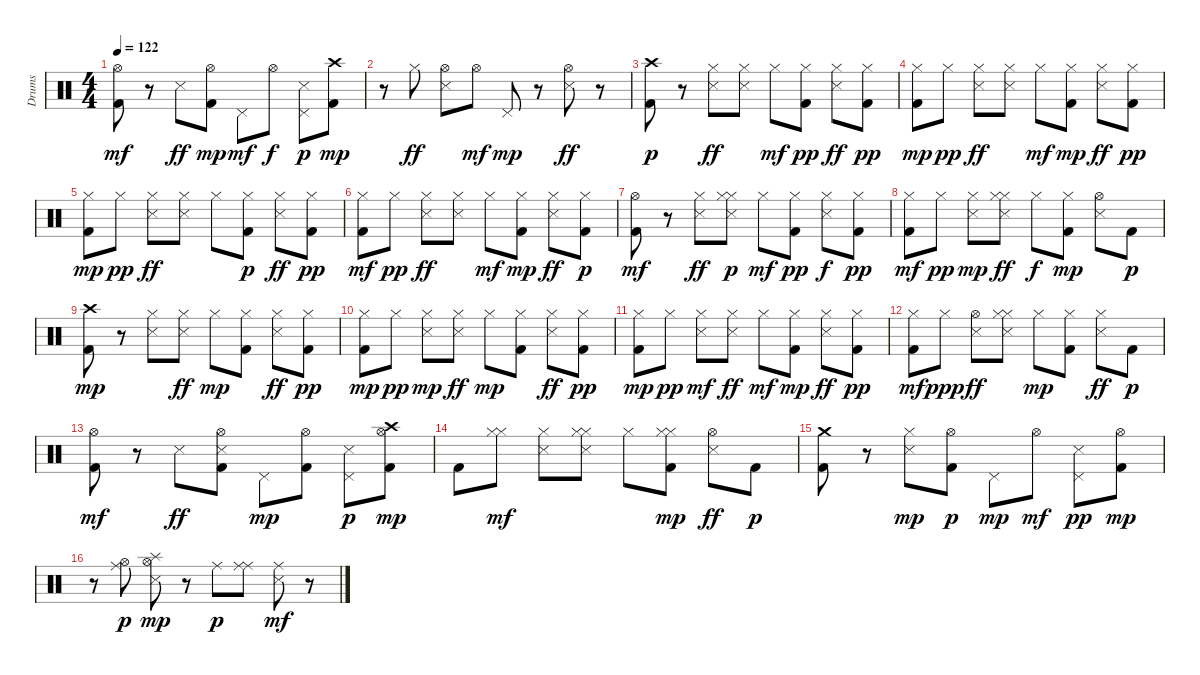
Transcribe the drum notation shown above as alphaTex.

\track ("Drums    " "Drums    ") {instrument percussion}
\staff {score}
\articulation defaults
\ts (4 4)
\tempo 122
\clef neutral
\ks c
("Hi-Hat (open)" "Kick (hit) 2").8{dy mf} r.8 "Snare (side stick) 3".8{dy ff} ("Kick (hit) 2" "Hi-Hat (open)").8{dy mp} "Pedal Hi-Hat (hit)".8{dy mf} "Hi-Hat (open)".8{dy f} ("Snare (side stick) 3" "Pedal Hi-Hat (hit)").8{dy p} ("Crash high (hit)" "Kick (hit) 2").8{dy mp} |
r.8 "Hi-Hat (closed)".8{dy ff} ("Snare (side stick) 3" "Hi-Hat (open)").8 "Hi-Hat (open)".8{dy mf} "Pedal Hi-Hat (hit)".8{dy mp} r.8 ("Hi-Hat (open)" "Snare (side stick) 3").8{dy ff} r.8 |
("Kick (hit) 2" "Crash high (hit)").8{dy p} r.8 ("Hi-Hat (closed)" "Snare (side stick) 3").8{dy ff} ("Hi-Hat (closed)" "Snare (side stick) 3").8 "Hi-Hat (closed)".8{dy mf} ("Kick (hit) 2" "Hi-Hat (closed)").8{dy pp} ("Hi-Hat (closed)" "Snare (side stick) 3").8{dy ff} ("Hi-Hat (closed)" "Kick (hit) 2").8{dy pp} |
("Hi-Hat (closed)" "Kick (hit) 2").8{dy mp} "Hi-Hat (closed)".8{dy pp} ("Snare (side stick) 3" "Hi-Hat (closed)").8{dy ff} ("Hi-Hat (closed)" "Snare (side stick) 3").8 "Hi-Hat (closed)".8{dy mf} ("Hi-Hat (closed)" "Kick (hit) 2").8{dy mp} ("Hi-Hat (closed)" "Snare (side stick) 3").8{dy ff} ("Hi-Hat (closed)" "Kick (hit) 2").8{dy pp} |
("Hi-Hat (closed)" "Kick (hit) 2").8{dy mp} "Hi-Hat (closed)".8{dy pp} ("Snare (side stick) 3" "Hi-Hat (closed)").8{dy ff} ("Hi-Hat (closed)" "Snare (side stick) 3").8 "Hi-Hat (closed)".8 ("Kick (hit) 2" "Hi-Hat (closed)").8{dy p} ("Snare (side stick) 3" "Hi-Hat (closed)").8{dy ff} ("Hi-Hat (closed)" "Kick (hit) 2").8{dy pp} |
("Kick (hit) 2" "Hi-Hat (closed)").8{dy mf} "Hi-Hat (closed)".8{dy pp} ("Hi-Hat (closed)" "Snare (side stick) 3").8{dy ff} ("Hi-Hat (closed)" "Snare (side stick) 3").8 "Hi-Hat (closed)".8{dy mf} ("Hi-Hat (closed)" "Kick (hit) 2").8{dy mp} ("Snare (side stick) 3" "Hi-Hat (closed)").8{dy ff} ("Hi-Hat (closed)" "Kick (hit) 2").8{dy p} |
("Kick (hit) 2" "Hi-Hat (open)").8{dy mf} r.8 ("Snare (side stick) 3" "Hi-Hat (closed)").8{dy ff} ("Hi-Hat (closed)" "Snare (side stick) 3" "Hi-Hat (closed)").8{dy p} "Hi-Hat (closed)".8{dy mf} ("Kick (hit) 2" "Hi-Hat (closed)").8{dy pp} ("Snare (side stick) 3" "Hi-Hat (closed)").8{dy f} ("Kick (hit) 2" "Hi-Hat (closed)").8{dy pp} |
("Kick (hit) 2" "Hi-Hat (closed)").8{dy mf} "Hi-Hat (closed)".8{dy pp} ("Snare (side stick) 3" "Hi-Hat (closed)").8{dy mp} ("Hi-Hat (closed)" "Hi-Hat (closed)" "Snare (side stick) 3").8{dy ff} "Hi-Hat (closed)".8{dy f} ("Kick (hit) 2" "Hi-Hat (closed)").8{dy mp} ("Snare (side stick) 3" "Hi-Hat (open)").8 "Kick (hit) 2".8{dy p} |
("Kick (hit) 2" "Crash high (hit)").8{dy mp} r.8 ("Snare (side stick) 3" "Hi-Hat (closed)").8 ("Hi-Hat (closed)" "Snare (side stick) 3").8{dy ff} "Hi-Hat (closed)".8{dy mp} ("Hi-Hat (closed)" "Kick (hit) 2").8 ("Hi-Hat (closed)" "Snare (side stick) 3").8{dy ff} ("Hi-Hat (closed)" "Kick (hit) 2").8{dy pp} |
("Kick (hit) 2" "Hi-Hat (closed)").8{dy mp} "Hi-Hat (closed)".8{dy pp} ("Snare (side stick) 3" "Hi-Hat (closed)").8{dy mp} ("Hi-Hat (closed)" "Snare (side stick) 3").8{dy ff} "Hi-Hat (closed)".8{dy mp} ("Hi-Hat (closed)" "Kick (hit) 2").8 ("Hi-Hat (closed)" "Snare (side stick) 3").8{dy ff} ("Hi-Hat (closed)" "Kick (hit) 2").8{dy pp} |
("Hi-Hat (closed)" "Kick (hit) 2").8{dy mp} "Hi-Hat (closed)".8{dy pp} ("Hi-Hat (closed)" "Snare (side stick) 3").8{dy mf} ("Hi-Hat (closed)" "Snare (side stick) 3").8{dy ff} "Hi-Hat (closed)".8{dy mf} ("Hi-Hat (closed)" "Kick (hit) 2").8{dy mp} ("Hi-Hat (closed)" "Snare (side stick) 3").8{dy ff} ("Kick (hit) 2" "Hi-Hat (closed)").8{dy pp} |
("Hi-Hat (closed)" "Kick (hit) 2").8{dy mf} "Hi-Hat (closed)".8{dy ppp} ("Snare (side stick) 3" "Hi-Hat (open)").8{dy ff} ("Hi-Hat (closed)" "Snare (side stick) 3" "Hi-Hat (closed)").8 "Hi-Hat (closed)".8{dy mp} ("Kick (hit) 2" "Hi-Hat (closed)").8 ("Snare (side stick) 3" "Hi-Hat (closed)").8{dy ff} "Kick (hit) 2".8{dy p} |
("Kick (hit) 2" "Hi-Hat (open)").8{dy mf} r.8 "Snare (side stick) 3".8{dy ff} ("Kick (hit) 2" "Hi-Hat (open)" "Snare (side stick) 3").8 "Pedal Hi-Hat (hit)".8{dy mp} ("Kick (hit) 2" "Hi-Hat (open)").8 ("Snare (side stick) 3" "Pedal Hi-Hat (hit)").8{dy p} ("Kick (hit) 2" "Crash high (hit)" "Hi-Hat (open)").8{dy mp} |
"Kick (hit) 2".8 ("Hi-Hat (closed)" "Hi-Hat (closed)").8{dy mf} ("Snare (side stick) 3" "Hi-Hat (closed)").8 ("Hi-Hat (closed)" "Snare (side stick) 3" "Hi-Hat (closed)").8 "Hi-Hat (closed)".8 ("Kick (hit) 2" "Hi-Hat (closed)" "Hi-Hat (closed)").8{dy mp} ("Snare (side stick) 3" "Hi-Hat (open)").8{dy ff} "Kick (hit) 2".8{dy p} |
("Kick (hit) 2" "Crash medium (hit)").8 r.8 ("Snare (side stick) 3" "Hi-Hat (closed)").8{dy mp} ("Hi-Hat (open)" "Kick (hit) 2").8{dy p} "Pedal Hi-Hat (hit)".8{dy mp} "Hi-Hat (open)".8{dy mf} ("Snare (side stick) 3" "Pedal Hi-Hat (hit)").8{dy pp} ("Hi-Hat (open)" "Kick (hit) 2").8{dy mp} |
r.8 ("Ride (middle)" "Hi-Hat (open)").8{dy p} ("Snare (side stick) 3" "Splash (hit)" "Hi-Hat (open)").8{dy mp} r.8 "Ride (middle)".8{dy p} ("Ride (middle)" "Ride (middle)").8 ("Snare (side stick) 3" "Ride (middle)").8{dy mf} r.8
